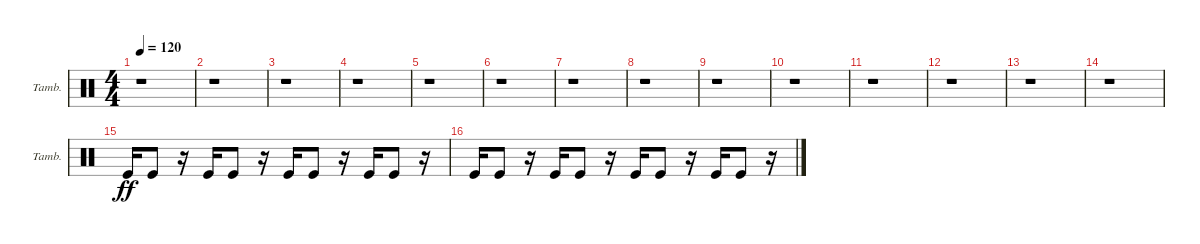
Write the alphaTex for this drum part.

\bracketExtendMode groupsimilarinstruments
\singleTrackTrackNamePolicy allsystems
\multiTrackTrackNamePolicy allsystems
\firstSystemTrackNameOrientation horizontal
\otherSystemsTrackNameOrientation horizontal
\track ("Tambourine" "Tamb.") {instrument percussion}
\staff {score}
\articulation defaults
\ts (4 4)
\tempo 120
\clef neutral
\scale
0.472222
\ks c
r.1{dy ff} |
r.1 |
\scale
0.263889 r.1 |
\scale
0.263889 r.1 |
\scale
0.333333 r.1 |
\scale
0.333333 r.1 |
\scale
0.333333 r.1 |
\scale
0.333333 r.1 |
\scale
0.333333 r.1 |
\scale
0.333333 r.1 |
\scale
0.333333 r.1 |
\scale
0.333333 r.1 |
\scale
0.333333 r.1 |
\scale
0.333333 r.1 |
\scale
0.333333 "Kick (hit)".16 "Kick (hit)".8 r.16 "Kick (hit)".16 "Kick (hit)".8 r.16 "Kick (hit)".16 "Kick (hit)".8 r.16 "Kick (hit)".16 "Kick (hit)".8 r.16 |
\scale
0.333333 "Kick (hit)".16 "Kick (hit)".8 r.16 "Kick (hit)".16 "Kick (hit)".8 r.16 "Kick (hit)".16 "Kick (hit)".8 r.16 "Kick (hit)".16 "Kick (hit)".8 r.16
